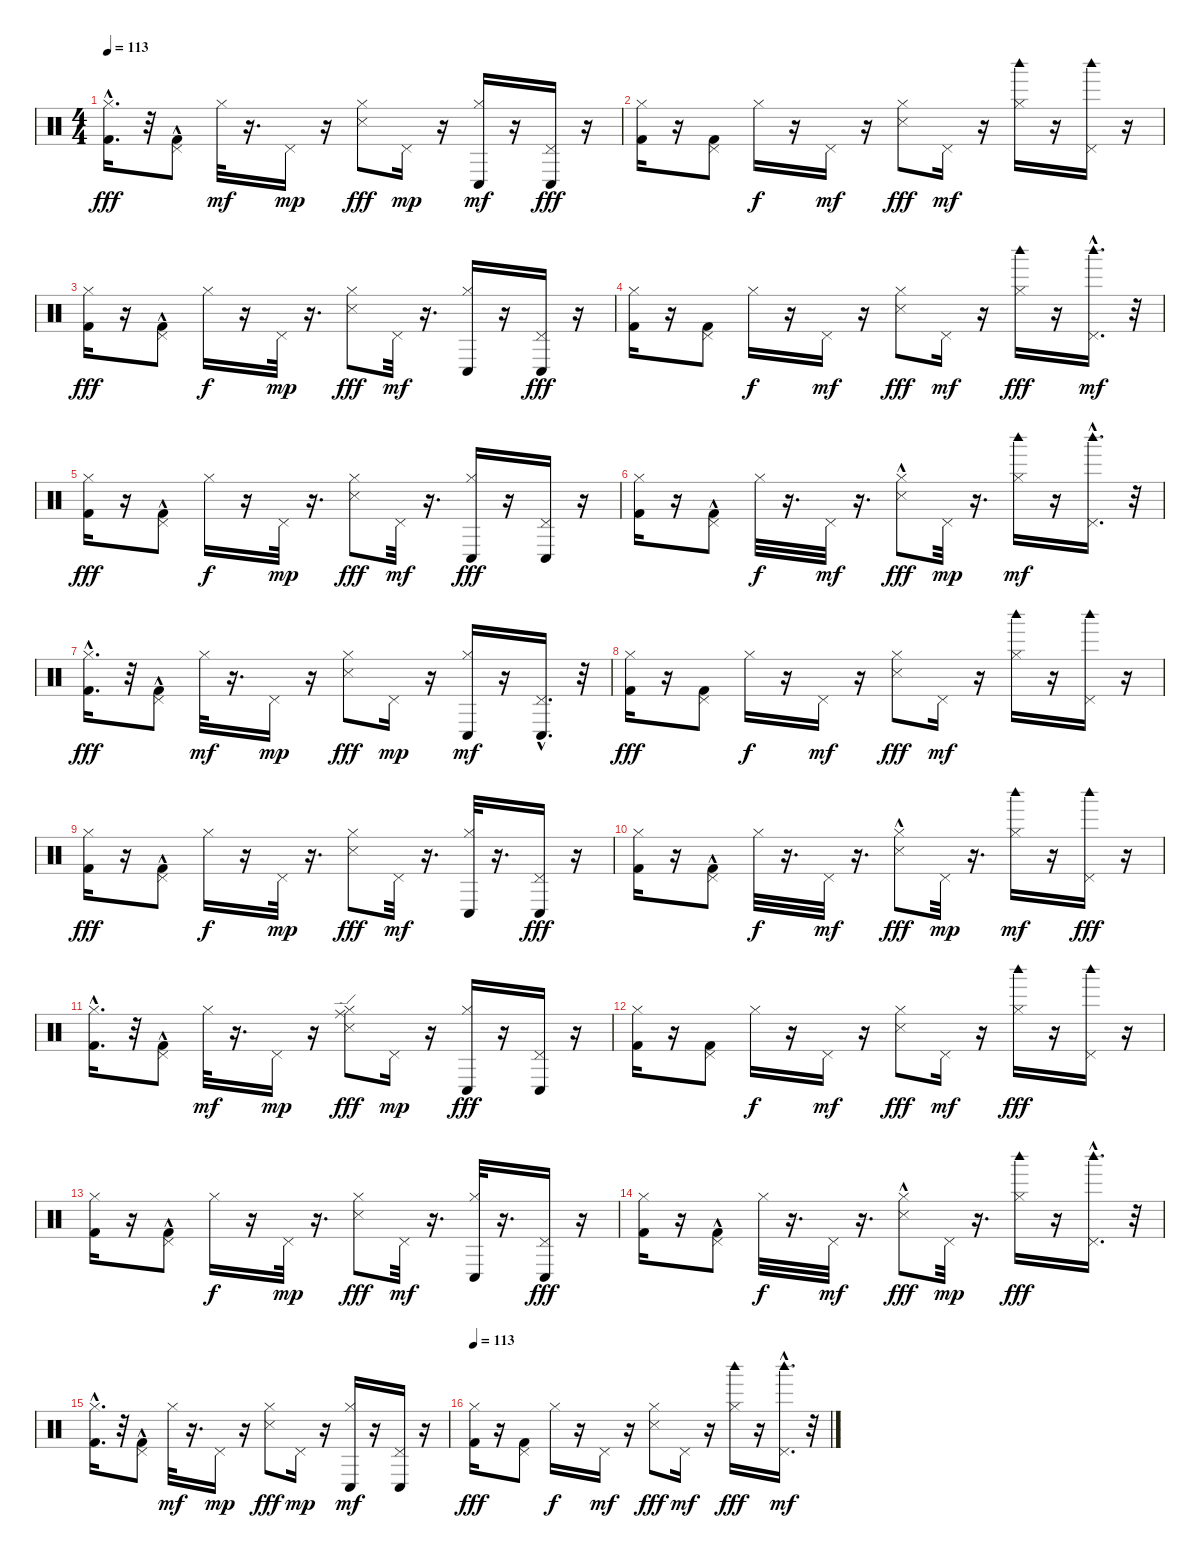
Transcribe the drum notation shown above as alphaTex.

\track "" {instrument percussion}
\staff {score}
\articulation defaults
\ts (4 4)
\tempo 113
\clef neutral
\ks c
("Hi-Hat (closed)" "Kick (hit) 2"{hac}).16{d dy fff} r.32 ("Pedal Hi-Hat (hit)" "Kick (hit) 2"{hac}).8 "Hi-Hat (closed)".32{dy mf} r.16{d} "Pedal Hi-Hat (hit)".16{dy mp} r.16 ("Hi-Hat (closed)" "Snare (side stick) 3").8{dy fff} "Pedal Hi-Hat (hit)".16{dy mp} r.16 ("Conga low (hit)" "Hi-Hat (closed)").16{dy mf} r.16 ("Pedal Hi-Hat (hit)" "Conga low (hit)").16{dy fff} r.16 |
("Hi-Hat (closed)" "Kick (hit) 2").16 r.16 ("Pedal Hi-Hat (hit)" "Kick (hit) 2").8 "Hi-Hat (closed)".16{dy f} r.16 "Pedal Hi-Hat (hit)".16{dy mf} r.16 ("Hi-Hat (closed)" "Snare (side stick) 3").8{dy fff} "Pedal Hi-Hat (hit)".16{dy mf} r.16 ("Woodblock high (hit)" "Hi-Hat (closed)").16 r.16 ("Woodblock high (hit)" "Pedal Hi-Hat (hit)").16 r.16 |
("Hi-Hat (closed)" "Kick (hit) 2").16{dy fff} r.16 ("Pedal Hi-Hat (hit)" "Kick (hit) 2"{hac}).8 "Hi-Hat (closed)".16{dy f} r.16 "Pedal Hi-Hat (hit)".32{dy mp} r.16{d} ("Hi-Hat (closed)" "Snare (side stick) 3").8{dy fff} "Pedal Hi-Hat (hit)".32{dy mf} r.16{d} ("Conga low (hit)" "Hi-Hat (closed)").16 r.16 ("Pedal Hi-Hat (hit)" "Conga low (hit)").16{dy fff} r.16 |
("Hi-Hat (closed)" "Kick (hit) 2").16 r.16 ("Pedal Hi-Hat (hit)" "Kick (hit) 2").8 "Hi-Hat (closed)".16{dy f} r.16 "Pedal Hi-Hat (hit)".16{dy mf} r.16 ("Hi-Hat (closed)" "Snare (side stick) 3").8{dy fff} "Pedal Hi-Hat (hit)".16{dy mf} r.16 ("Hi-Hat (closed)" "Woodblock high (hit)").16{dy fff} r.16 ("Woodblock high (hit)"{hac} "Pedal Hi-Hat (hit)").16{d dy mf} r.32 |
("Hi-Hat (closed)" "Kick (hit) 2").16{dy fff} r.16 ("Pedal Hi-Hat (hit)" "Kick (hit) 2"{hac}).8 "Hi-Hat (closed)".16{dy f} r.16 "Pedal Hi-Hat (hit)".32{dy mp} r.16{d} ("Hi-Hat (closed)" "Snare (side stick) 3").8{dy fff} "Pedal Hi-Hat (hit)".32{dy mf} r.16{d} ("Hi-Hat (closed)" "Conga low (hit)").16{dy fff} r.16 ("Pedal Hi-Hat (hit)" "Conga low (hit)").16 r.16 |
("Hi-Hat (closed)" "Kick (hit) 2").16 r.16 ("Pedal Hi-Hat (hit)" "Kick (hit) 2"{hac}).8 "Hi-Hat (closed)".32{dy f} r.16{d} "Pedal Hi-Hat (hit)".32{dy mf} r.16{d} ("Hi-Hat (closed)" "Snare (side stick) 3"{hac}).8{dy fff} "Pedal Hi-Hat (hit)".32{dy mp} r.16{d} ("Woodblock high (hit)" "Hi-Hat (closed)").16{dy mf} r.16 ("Woodblock high (hit)"{hac} "Pedal Hi-Hat (hit)").16{d} r.32 |
("Hi-Hat (closed)" "Kick (hit) 2"{hac}).16{d dy fff} r.32 ("Pedal Hi-Hat (hit)" "Kick (hit) 2"{hac}).8 "Hi-Hat (closed)".32{dy mf} r.16{d} "Pedal Hi-Hat (hit)".16{dy mp} r.16 ("Hi-Hat (closed)" "Snare (side stick) 3").8{dy fff} "Pedal Hi-Hat (hit)".16{dy mp} r.16 ("Conga low (hit)" "Hi-Hat (closed)").16{dy mf} r.16 ("Conga low (hit)"{hac} "Pedal Hi-Hat (hit)").16{d} r.32 |
("Hi-Hat (closed)" "Kick (hit) 2").16{dy fff} r.16 ("Pedal Hi-Hat (hit)" "Kick (hit) 2").8 "Hi-Hat (closed)".16{dy f} r.16 "Pedal Hi-Hat (hit)".16{dy mf} r.16 ("Hi-Hat (closed)" "Snare (side stick) 3").8{dy fff} "Pedal Hi-Hat (hit)".16{dy mf} r.16 ("Woodblock high (hit)" "Hi-Hat (closed)").16 r.16 ("Woodblock high (hit)" "Pedal Hi-Hat (hit)").16 r.16 |
("Hi-Hat (closed)" "Kick (hit) 2").16{dy fff} r.16 ("Pedal Hi-Hat (hit)" "Kick (hit) 2"{hac}).8 "Hi-Hat (closed)".16{dy f} r.16 "Pedal Hi-Hat (hit)".32{dy mp} r.16{d} ("Hi-Hat (closed)" "Snare (side stick) 3").8{dy fff} "Pedal Hi-Hat (hit)".32{dy mf} r.16{d} ("Conga low (hit)" "Hi-Hat (closed)").32 r.16{d} ("Pedal Hi-Hat (hit)" "Conga low (hit)").16{dy fff} r.16 |
("Hi-Hat (closed)" "Kick (hit) 2").16 r.16 ("Pedal Hi-Hat (hit)" "Kick (hit) 2"{hac}).8 "Hi-Hat (closed)".32{dy f} r.16{d} "Pedal Hi-Hat (hit)".32{dy mf} r.16{d} ("Hi-Hat (closed)" "Snare (side stick) 3"{hac}).8{dy fff} "Pedal Hi-Hat (hit)".32{dy mp} r.16{d} ("Woodblock high (hit)" "Hi-Hat (closed)").16{dy mf} r.16 ("Pedal Hi-Hat (hit)" "Woodblock high (hit)").16{dy fff} r.16 |
("Hi-Hat (closed)" "Kick (hit) 2"{hac}).16{d} r.32 ("Pedal Hi-Hat (hit)" "Kick (hit) 2"{hac}).8 "Hi-Hat (closed)".32{dy mf} r.16{d} "Pedal Hi-Hat (hit)".16{dy mp} r.16 ("Ride (edge)" "Hi-Hat (closed)" "Snare (side stick) 3").8{dy fff} "Pedal Hi-Hat (hit)".16{dy mp} r.16 ("Hi-Hat (closed)" "Conga low (hit)").16{dy fff} r.16 ("Pedal Hi-Hat (hit)" "Conga low (hit)").16 r.16 |
("Hi-Hat (closed)" "Kick (hit) 2").16 r.16 ("Pedal Hi-Hat (hit)" "Kick (hit) 2").8 "Hi-Hat (closed)".16{dy f} r.16 "Pedal Hi-Hat (hit)".16{dy mf} r.16 ("Hi-Hat (closed)" "Snare (side stick) 3").8{dy fff} "Pedal Hi-Hat (hit)".16{dy mf} r.16 ("Hi-Hat (closed)" "Woodblock high (hit)").16{dy fff} r.16 ("Pedal Hi-Hat (hit)" "Woodblock high (hit)").16 r.16 |
("Hi-Hat (closed)" "Kick (hit) 2").16 r.16 ("Pedal Hi-Hat (hit)" "Kick (hit) 2"{hac}).8 "Hi-Hat (closed)".16{dy f} r.16 "Pedal Hi-Hat (hit)".32{dy mp} r.16{d} ("Hi-Hat (closed)" "Snare (side stick) 3").8{dy fff} "Pedal Hi-Hat (hit)".32{dy mf} r.16{d} ("Conga low (hit)" "Hi-Hat (closed)").32 r.16{d} ("Pedal Hi-Hat (hit)" "Conga low (hit)").16{dy fff} r.16 |
("Hi-Hat (closed)" "Kick (hit) 2").16 r.16 ("Pedal Hi-Hat (hit)" "Kick (hit) 2"{hac}).8 "Hi-Hat (closed)".32{dy f} r.16{d} "Pedal Hi-Hat (hit)".32{dy mf} r.16{d} ("Hi-Hat (closed)" "Snare (side stick) 3"{hac}).8{dy fff} "Pedal Hi-Hat (hit)".32{dy mp} r.16{d} ("Hi-Hat (closed)" "Woodblock high (hit)").16{dy fff} r.16 ("Pedal Hi-Hat (hit)" "Woodblock high (hit)"{hac}).16{d} r.32 |
("Hi-Hat (closed)" "Kick (hit) 2"{hac}).16{d} r.32 ("Pedal Hi-Hat (hit)" "Kick (hit) 2"{hac}).8 "Hi-Hat (closed)".32{dy mf} r.16{d} "Pedal Hi-Hat (hit)".16{dy mp} r.16 ("Hi-Hat (closed)" "Snare (side stick) 3").8{dy fff} "Pedal Hi-Hat (hit)".16{dy mp} r.16 ("Conga low (hit)" "Hi-Hat (closed)").16{dy mf} r.16 ("Conga low (hit)" "Pedal Hi-Hat (hit)").16 r.16 |
\tempo 113
("Hi-Hat (closed)" "Kick (hit) 2").16{dy fff} r.16 ("Pedal Hi-Hat (hit)" "Kick (hit) 2").8 "Hi-Hat (closed)".16{dy f} r.16 "Pedal Hi-Hat (hit)".16{dy mf} r.16 ("Hi-Hat (closed)" "Snare (side stick) 3").8{dy fff} "Pedal Hi-Hat (hit)".16{dy mf} r.16 ("Hi-Hat (closed)" "Woodblock high (hit)").16{dy fff} r.16 ("Woodblock high (hit)"{hac} "Pedal Hi-Hat (hit)").16{d dy mf} r.32
